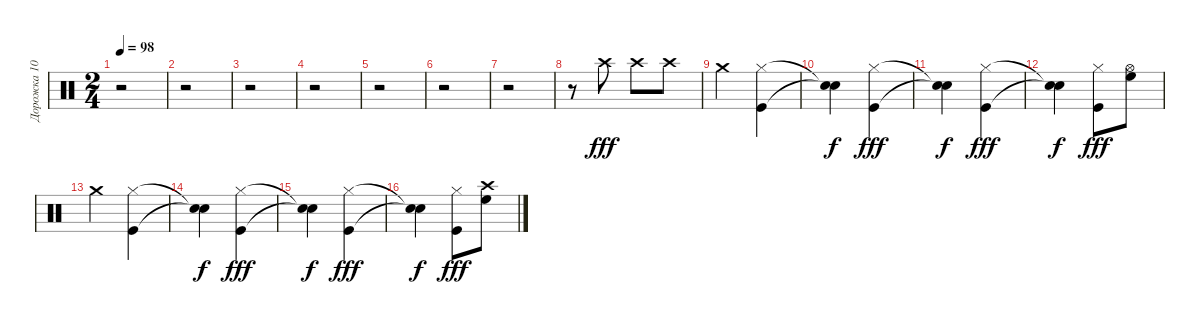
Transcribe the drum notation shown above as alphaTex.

\track ("Дорожка 10" "Дорожка 10") {instrument percussion}
\staff {score}
\articulation defaults
\ts (2 4)
\tempo 98
\clef neutral
\ks c
r.2{dy fff} |
r.2 |
r.2 |
r.2 |
r.2 |
r.2 |
r.2 |
r.8 "Crash high (hit)".8 "Crash high (hit)".8 "Crash high (hit)".8 |
"Crash medium (hit)".4 ("Kick (hit)" "Hi-Hat (closed)").4 |
("Snare (hit)"{t} "Snare (hit)"{t}).4{dy f} ("Kick (hit)" "Hi-Hat (closed)").4{dy fff} |
("Snare (hit)"{t} "Snare (hit)"{t}).4{dy f} ("Kick (hit)" "Hi-Hat (closed)").4{dy fff} |
("Snare (hit)"{t} "Snare (hit)"{t}).4{dy f} ("Kick (hit)" "Hi-Hat (closed)").8{dy fff} ("High Floor Tom (hit)" "Hi-Hat (open)").8 |
"Crash medium (hit)".4 ("Kick (hit)" "Hi-Hat (closed)").4 |
("Snare (hit)"{t} "Snare (hit)"{t}).4{dy f} ("Kick (hit)" "Hi-Hat (closed)").4{dy fff} |
("Snare (hit)"{t} "Snare (hit)"{t}).4{dy f} ("Kick (hit)" "Hi-Hat (closed)").4{dy fff} |
("Snare (hit)"{t} "Snare (hit)"{t}).4{dy f} ("Kick (hit)" "Hi-Hat (closed)").8{dy fff} ("High Floor Tom (hit)" "Crash high (hit)").8
